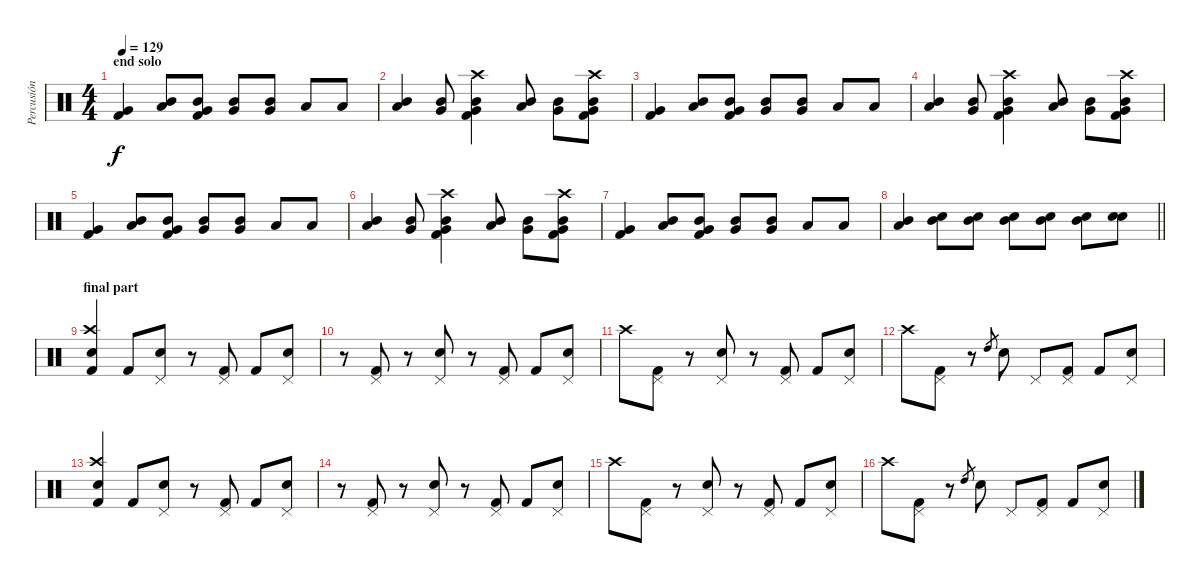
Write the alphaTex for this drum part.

\track ("Percusión" "Percusión") {instrument percussion}
\staff {score}
\articulation defaults
\ts (4 4)
\section ("" "end solo")
\tempo 129
\clef neutral
\ks c
("Very Low Tom (hit)" "Kick (hit) 2").4{dy f} ("Low Tom (hit)" "Mid Tom (hit)").8 ("Very Low Tom (hit)" "Mid Tom (hit)" "Kick (hit) 2").8 ("Very Low Tom (hit)" "Mid Tom (hit)").8 ("Very Low Tom (hit)" "Mid Tom (hit)").8 "Low Tom (hit)".8 "Low Tom (hit)".8 |
("Low Tom (hit)" "Mid Tom (hit)").4 ("Very Low Tom (hit)" "Mid Tom (hit)").8 ("Crash high (hit)" "Very Low Tom (hit)" "Mid Tom (hit)" "Kick (hit) 2").4 ("Low Tom (hit)" "Mid Tom (hit)").8 ("Very Low Tom (hit)" "Mid Tom (hit)").8 ("Crash high (hit)" "Very Low Tom (hit)" "Mid Tom (hit)" "Kick (hit) 2").8 |
("Very Low Tom (hit)" "Kick (hit) 2").4 ("Low Tom (hit)" "Mid Tom (hit)").8 ("Very Low Tom (hit)" "Mid Tom (hit)" "Kick (hit) 2").8 ("Very Low Tom (hit)" "Mid Tom (hit)").8 ("Very Low Tom (hit)" "Mid Tom (hit)").8 "Low Tom (hit)".8 "Low Tom (hit)".8 |
("Low Tom (hit)" "Mid Tom (hit)").4 ("Very Low Tom (hit)" "Mid Tom (hit)").8 ("Crash high (hit)" "Very Low Tom (hit)" "Mid Tom (hit)" "Kick (hit) 2").4 ("Low Tom (hit)" "Mid Tom (hit)").8 ("Very Low Tom (hit)" "Mid Tom (hit)").8 ("Crash high (hit)" "Very Low Tom (hit)" "Mid Tom (hit)" "Kick (hit) 2").8 |
("Very Low Tom (hit)" "Kick (hit) 2").4 ("Low Tom (hit)" "Mid Tom (hit)").8 ("Very Low Tom (hit)" "Mid Tom (hit)" "Kick (hit) 2").8 ("Very Low Tom (hit)" "Mid Tom (hit)").8 ("Very Low Tom (hit)" "Mid Tom (hit)").8 "Low Tom (hit)".8 "Low Tom (hit)".8 |
("Low Tom (hit)" "Mid Tom (hit)").4 ("Very Low Tom (hit)" "Mid Tom (hit)").8 ("Crash high (hit)" "Very Low Tom (hit)" "Mid Tom (hit)" "Kick (hit) 2").4 ("Low Tom (hit)" "Mid Tom (hit)").8 ("Very Low Tom (hit)" "Mid Tom (hit)").8 ("Crash high (hit)" "Very Low Tom (hit)" "Mid Tom (hit)" "Kick (hit) 2").8 |
("Very Low Tom (hit)" "Kick (hit) 2").4 ("Low Tom (hit)" "Mid Tom (hit)").8 ("Very Low Tom (hit)" "Mid Tom (hit)" "Kick (hit) 2").8 ("Very Low Tom (hit)" "Mid Tom (hit)").8 ("Very Low Tom (hit)" "Mid Tom (hit)").8 "Low Tom (hit)".8 "Low Tom (hit)".8 |
\barLineRight lightlight
("Low Tom (hit)" "Mid Tom (hit)").4 ("Electric Snare (hit)" "Mid Tom (hit)").8 ("Electric Snare (hit)" "Mid Tom (hit)").8 ("Electric Snare (hit)" "Mid Tom (hit)").8 ("Electric Snare (hit)" "Mid Tom (hit)").8 ("Electric Snare (hit)" "Mid Tom (hit)").8 ("Electric Snare (hit)" "Electric Snare (hit)").8 |
\section ("" "final part")
("Crash high (hit)" "Electric Snare (hit)" "Kick (hit) 2").4 "Kick (hit) 2".8 ("Electric Snare (hit)" "Pedal Hi-Hat (hit)").8 r.8 ("Pedal Hi-Hat (hit)" "Kick (hit) 2").8 "Kick (hit) 2".8 ("Electric Snare (hit)" "Pedal Hi-Hat (hit)").8 |
r.8 ("Pedal Hi-Hat (hit)" "Kick (hit) 2").8 r.8 ("Electric Snare (hit)" "Pedal Hi-Hat (hit)").8 r.8 ("Pedal Hi-Hat (hit)" "Kick (hit) 2").8 "Kick (hit) 2".8 ("Electric Snare (hit)" "Pedal Hi-Hat (hit)").8 |
"Crash high (hit)".8 ("Pedal Hi-Hat (hit)" "Kick (hit) 2").8 r.8 ("Electric Snare (hit)" "Pedal Hi-Hat (hit)").8 r.8 ("Pedal Hi-Hat (hit)" "Kick (hit) 2").8 "Kick (hit) 2".8 ("Electric Snare (hit)" "Pedal Hi-Hat (hit)").8 |
"Crash high (hit)".8 ("Pedal Hi-Hat (hit)" "Kick (hit) 2").8 r.8 "High Tom (hit)".8{gr} "Electric Snare (hit)".8 "Pedal Hi-Hat (hit)".8 ("Pedal Hi-Hat (hit)" "Kick (hit) 2").8 "Kick (hit) 2".8 ("Electric Snare (hit)" "Pedal Hi-Hat (hit)").8 |
("Crash high (hit)" "Electric Snare (hit)" "Kick (hit) 2").4 "Kick (hit) 2".8 ("Electric Snare (hit)" "Pedal Hi-Hat (hit)").8 r.8 ("Pedal Hi-Hat (hit)" "Kick (hit) 2").8 "Kick (hit) 2".8 ("Electric Snare (hit)" "Pedal Hi-Hat (hit)").8 |
r.8 ("Pedal Hi-Hat (hit)" "Kick (hit) 2").8 r.8 ("Electric Snare (hit)" "Pedal Hi-Hat (hit)").8 r.8 ("Pedal Hi-Hat (hit)" "Kick (hit) 2").8 "Kick (hit) 2".8 ("Electric Snare (hit)" "Pedal Hi-Hat (hit)").8 |
"Crash high (hit)".8 ("Pedal Hi-Hat (hit)" "Kick (hit) 2").8 r.8 ("Electric Snare (hit)" "Pedal Hi-Hat (hit)").8 r.8 ("Pedal Hi-Hat (hit)" "Kick (hit) 2").8 "Kick (hit) 2".8 ("Electric Snare (hit)" "Pedal Hi-Hat (hit)").8 |
"Crash high (hit)".8 ("Pedal Hi-Hat (hit)" "Kick (hit) 2").8 r.8 "High Tom (hit)".8{gr} "Electric Snare (hit)".8 "Pedal Hi-Hat (hit)".8 ("Pedal Hi-Hat (hit)" "Kick (hit) 2").8 "Kick (hit) 2".8 ("Electric Snare (hit)" "Pedal Hi-Hat (hit)").8
